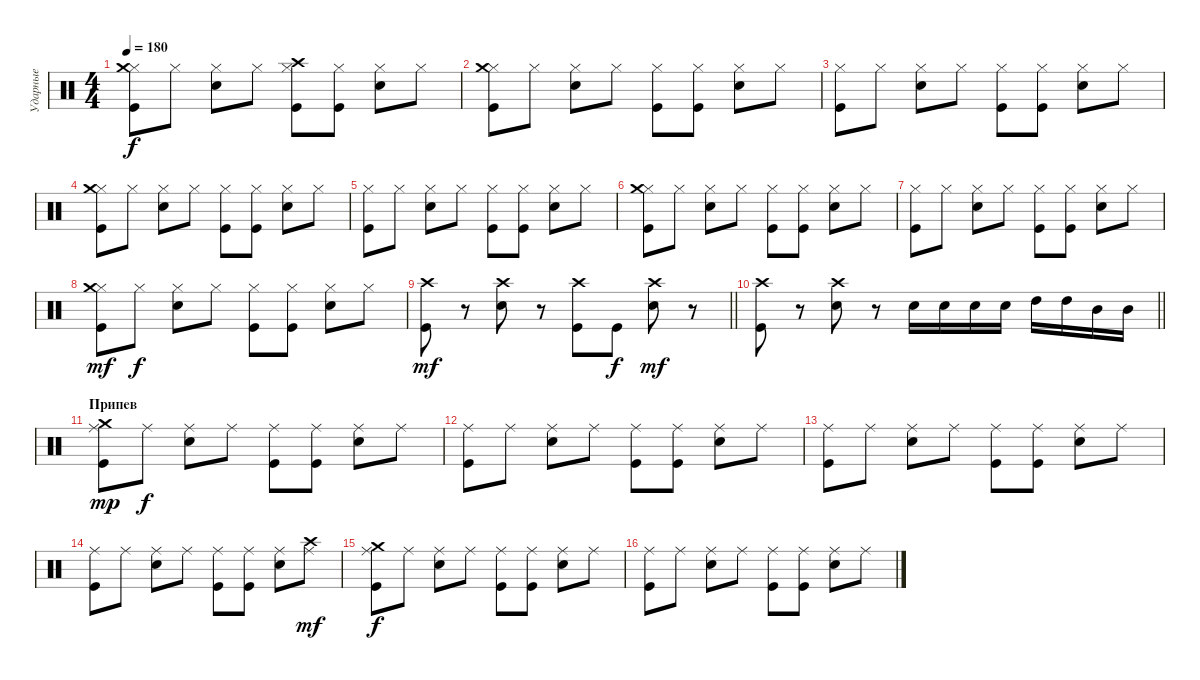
\track ("Ударные" "Ударные") {instrument percussion}
\staff {score}
\articulation defaults
\ts (4 4)
\tempo 180
\clef neutral
\ks c
("Hi-Hat (closed)" "Kick (hit)" "Crash medium (hit)").8{dy f} "Hi-Hat (closed)".8 ("Hi-Hat (closed)" "Electric Snare (hit)").8 "Hi-Hat (closed)".8 ("Hi-Hat (closed)" "Kick (hit)" "Crash high (hit)").8 ("Hi-Hat (closed)" "Kick (hit)").8 ("Hi-Hat (closed)" "Electric Snare (hit)").8 "Hi-Hat (closed)".8 |
("Hi-Hat (closed)" "Kick (hit)" "Crash medium (hit)").8 "Hi-Hat (closed)".8 ("Hi-Hat (closed)" "Electric Snare (hit)").8 "Hi-Hat (closed)".8 ("Hi-Hat (closed)" "Kick (hit)").8 ("Hi-Hat (closed)" "Kick (hit)").8 ("Hi-Hat (closed)" "Electric Snare (hit)").8 "Hi-Hat (closed)".8 |
("Hi-Hat (closed)" "Kick (hit)").8 "Hi-Hat (closed)".8 ("Hi-Hat (closed)" "Electric Snare (hit)").8 "Hi-Hat (closed)".8 ("Hi-Hat (closed)" "Kick (hit)").8 ("Hi-Hat (closed)" "Kick (hit)").8 ("Hi-Hat (closed)" "Electric Snare (hit)").8 "Hi-Hat (closed)".8 |
("Hi-Hat (closed)" "Kick (hit)" "Crash medium (hit)").8 "Hi-Hat (closed)".8 ("Hi-Hat (closed)" "Electric Snare (hit)").8 "Hi-Hat (closed)".8 ("Hi-Hat (closed)" "Kick (hit)").8 ("Hi-Hat (closed)" "Kick (hit)").8 ("Hi-Hat (closed)" "Electric Snare (hit)").8 "Hi-Hat (closed)".8 |
("Hi-Hat (closed)" "Kick (hit)").8 "Hi-Hat (closed)".8 ("Hi-Hat (closed)" "Electric Snare (hit)").8 "Hi-Hat (closed)".8 ("Hi-Hat (closed)" "Kick (hit)").8 ("Hi-Hat (closed)" "Kick (hit)").8 ("Hi-Hat (closed)" "Electric Snare (hit)").8 "Hi-Hat (closed)".8 |
("Hi-Hat (closed)" "Kick (hit)" "Crash medium (hit)").8 "Hi-Hat (closed)".8 ("Hi-Hat (closed)" "Electric Snare (hit)").8 "Hi-Hat (closed)".8 ("Hi-Hat (closed)" "Kick (hit)").8 ("Hi-Hat (closed)" "Kick (hit)").8 ("Hi-Hat (closed)" "Electric Snare (hit)").8 "Hi-Hat (closed)".8 |
("Hi-Hat (closed)" "Kick (hit)").8 "Hi-Hat (closed)".8 ("Hi-Hat (closed)" "Electric Snare (hit)").8 "Hi-Hat (closed)".8 ("Hi-Hat (closed)" "Kick (hit)").8 ("Hi-Hat (closed)" "Kick (hit)").8 ("Hi-Hat (closed)" "Electric Snare (hit)").8 "Hi-Hat (closed)".8 |
("Hi-Hat (closed)" "Kick (hit)" "Crash medium (hit)").8{dy mf} "Hi-Hat (closed)".8{dy f} ("Hi-Hat (closed)" "Electric Snare (hit)").8 "Hi-Hat (closed)".8 ("Hi-Hat (closed)" "Kick (hit)").8 ("Hi-Hat (closed)" "Kick (hit)").8 ("Hi-Hat (closed)" "Electric Snare (hit)").8 "Hi-Hat (closed)".8 |
\barLineRight lightlight
("Kick (hit)" "Crash high (hit)").8{dy mf} r.8 ("Electric Snare (hit)" "Crash high (hit)").8 r.8 ("Kick (hit)" "Crash high (hit)").8 "Kick (hit)".8{dy f} ("Electric Snare (hit)" "Crash high (hit)").8{dy mf} r.8 |
\barLineRight lightlight
("Kick (hit)" "Crash high (hit)").8 r.8 ("Electric Snare (hit)" "Crash high (hit)").8 r.8 "Electric Snare (hit)".16 "Electric Snare (hit)".16 "Electric Snare (hit)".16 "Electric Snare (hit)".16 "High Tom (hit)".16 "High Tom (hit)".16 "Mid Tom (hit)".16 "Mid Tom (hit)".16 |
\section ("" "Припев")
("Ride (middle)" "Kick (hit)" "Crash medium (hit)").8{dy mp} "Ride (middle)".8{dy f} ("Ride (middle)" "Electric Snare (hit)").8 "Ride (middle)".8 ("Ride (middle)" "Kick (hit)").8 ("Ride (middle)" "Kick (hit)").8 ("Ride (middle)" "Electric Snare (hit)").8 "Ride (middle)".8 |
("Ride (middle)" "Kick (hit)").8 "Ride (middle)".8 ("Ride (middle)" "Electric Snare (hit)").8 "Ride (middle)".8 ("Ride (middle)" "Kick (hit)").8 ("Ride (middle)" "Kick (hit)").8 ("Ride (middle)" "Electric Snare (hit)").8 "Ride (middle)".8 |
("Ride (middle)" "Kick (hit)").8 "Ride (middle)".8 ("Ride (middle)" "Electric Snare (hit)").8 "Ride (middle)".8 ("Ride (middle)" "Kick (hit)").8 ("Ride (middle)" "Kick (hit)").8 ("Ride (middle)" "Electric Snare (hit)").8 "Ride (middle)".8 |
("Ride (middle)" "Kick (hit)").8 "Ride (middle)".8 ("Ride (middle)" "Electric Snare (hit)").8 "Ride (middle)".8 ("Ride (middle)" "Kick (hit)").8 ("Ride (middle)" "Kick (hit)").8 ("Ride (middle)" "Electric Snare (hit)").8 ("Ride (middle)" "Crash high (hit)").8{dy mf} |
("Ride (middle)" "Kick (hit)" "Crash medium (hit)").8{dy f} "Ride (middle)".8 ("Ride (middle)" "Electric Snare (hit)").8 "Ride (middle)".8 ("Ride (middle)" "Kick (hit)").8 ("Ride (middle)" "Kick (hit)").8 ("Ride (middle)" "Electric Snare (hit)").8 "Ride (middle)".8 |
("Ride (middle)" "Kick (hit)").8 "Ride (middle)".8 ("Ride (middle)" "Electric Snare (hit)").8 "Ride (middle)".8 ("Ride (middle)" "Kick (hit)").8 ("Ride (middle)" "Kick (hit)").8 ("Ride (middle)" "Electric Snare (hit)").8 "Ride (middle)".8
